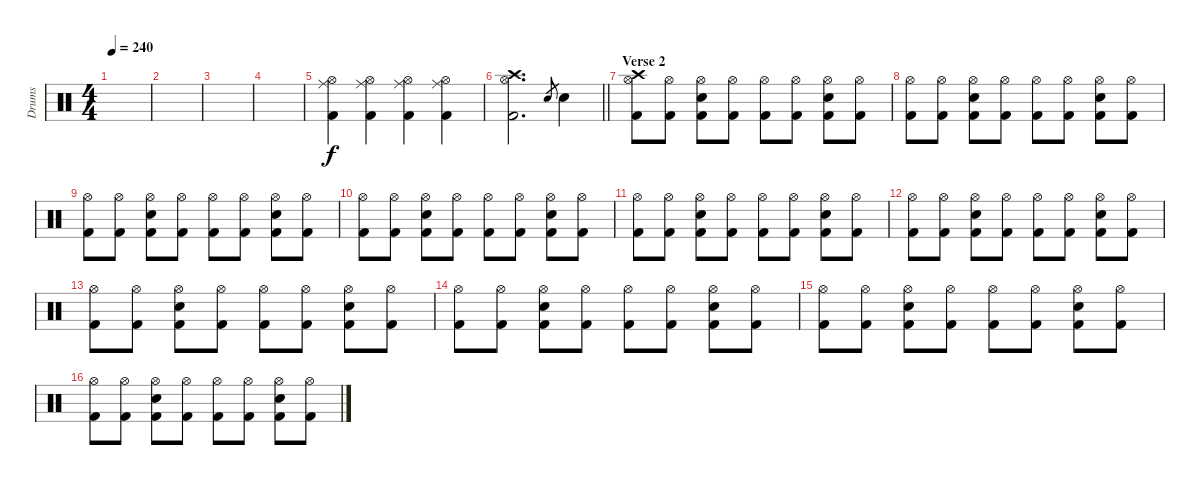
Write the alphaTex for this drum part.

\track ("Drums" "Drums") {instrument percussion}
\staff {score}
\articulation defaults
\ts (4 4)
\tempo 240
\clef neutral
\ks c
|
|
|
|
("Ride (middle)" "Hi-Hat (open)" "Kick (hit) 2").4 ("Ride (middle)" "Hi-Hat (open)" "Kick (hit) 2").4 ("Ride (middle)" "Hi-Hat (open)" "Kick (hit) 2").4 ("Ride (middle)" "Hi-Hat (open)" "Kick (hit) 2").4 |
\barLineRight lightlight
("Crash high (hit)" "Hi-Hat (open)" "Kick (hit) 2").2{d} "Snare (hit) 2".8{gr} "Snare (hit) 2".4 |
\section ("" "Verse 2")
("Kick (hit) 2" "Hi-Hat (open)" "Crash high (hit)").8 ("Kick (hit) 2" "Hi-Hat (open)").8 ("Kick (hit) 2" "Snare (hit) 2" "Hi-Hat (open)").8 ("Kick (hit) 2" "Hi-Hat (open)").8 ("Kick (hit) 2" "Hi-Hat (open)").8 ("Kick (hit) 2" "Hi-Hat (open)").8 ("Kick (hit) 2" "Snare (hit) 2" "Hi-Hat (open)").8 ("Kick (hit) 2" "Hi-Hat (open)").8 |
("Kick (hit) 2" "Hi-Hat (open)").8 ("Kick (hit) 2" "Hi-Hat (open)").8 ("Kick (hit) 2" "Snare (hit) 2" "Hi-Hat (open)").8 ("Kick (hit) 2" "Hi-Hat (open)").8 ("Kick (hit) 2" "Hi-Hat (open)").8 ("Kick (hit) 2" "Hi-Hat (open)").8 ("Kick (hit) 2" "Snare (hit) 2" "Hi-Hat (open)").8 ("Kick (hit) 2" "Hi-Hat (open)").8 |
("Kick (hit) 2" "Hi-Hat (open)").8 ("Kick (hit) 2" "Hi-Hat (open)").8 ("Kick (hit) 2" "Snare (hit) 2" "Hi-Hat (open)").8 ("Kick (hit) 2" "Hi-Hat (open)").8 ("Kick (hit) 2" "Hi-Hat (open)").8 ("Kick (hit) 2" "Hi-Hat (open)").8 ("Kick (hit) 2" "Snare (hit) 2" "Hi-Hat (open)").8 ("Kick (hit) 2" "Hi-Hat (open)").8 |
("Kick (hit) 2" "Hi-Hat (open)").8 ("Kick (hit) 2" "Hi-Hat (open)").8 ("Kick (hit) 2" "Snare (hit) 2" "Hi-Hat (open)").8 ("Kick (hit) 2" "Hi-Hat (open)").8 ("Kick (hit) 2" "Hi-Hat (open)").8 ("Kick (hit) 2" "Hi-Hat (open)").8 ("Kick (hit) 2" "Snare (hit) 2" "Hi-Hat (open)").8 ("Kick (hit) 2" "Hi-Hat (open)").8 |
("Kick (hit) 2" "Hi-Hat (open)").8 ("Kick (hit) 2" "Hi-Hat (open)").8 ("Kick (hit) 2" "Snare (hit) 2" "Hi-Hat (open)").8 ("Kick (hit) 2" "Hi-Hat (open)").8 ("Kick (hit) 2" "Hi-Hat (open)").8 ("Kick (hit) 2" "Hi-Hat (open)").8 ("Kick (hit) 2" "Snare (hit) 2" "Hi-Hat (open)").8 ("Kick (hit) 2" "Hi-Hat (open)").8 |
("Kick (hit) 2" "Hi-Hat (open)").8 ("Kick (hit) 2" "Hi-Hat (open)").8 ("Kick (hit) 2" "Snare (hit) 2" "Hi-Hat (open)").8 ("Kick (hit) 2" "Hi-Hat (open)").8 ("Kick (hit) 2" "Hi-Hat (open)").8 ("Kick (hit) 2" "Hi-Hat (open)").8 ("Kick (hit) 2" "Snare (hit) 2" "Hi-Hat (open)").8 ("Kick (hit) 2" "Hi-Hat (open)").8 |
("Kick (hit) 2" "Hi-Hat (open)").8 ("Kick (hit) 2" "Hi-Hat (open)").8 ("Kick (hit) 2" "Snare (hit) 2" "Hi-Hat (open)").8 ("Kick (hit) 2" "Hi-Hat (open)").8 ("Kick (hit) 2" "Hi-Hat (open)").8 ("Kick (hit) 2" "Hi-Hat (open)").8 ("Kick (hit) 2" "Snare (hit) 2" "Hi-Hat (open)").8 ("Kick (hit) 2" "Hi-Hat (open)").8 |
("Kick (hit) 2" "Hi-Hat (open)").8 ("Kick (hit) 2" "Hi-Hat (open)").8 ("Kick (hit) 2" "Snare (hit) 2" "Hi-Hat (open)").8 ("Kick (hit) 2" "Hi-Hat (open)").8 ("Kick (hit) 2" "Hi-Hat (open)").8 ("Kick (hit) 2" "Hi-Hat (open)").8 ("Kick (hit) 2" "Snare (hit) 2" "Hi-Hat (open)").8 ("Kick (hit) 2" "Hi-Hat (open)").8 |
("Kick (hit) 2" "Hi-Hat (open)").8 ("Kick (hit) 2" "Hi-Hat (open)").8 ("Kick (hit) 2" "Snare (hit) 2" "Hi-Hat (open)").8 ("Kick (hit) 2" "Hi-Hat (open)").8 ("Kick (hit) 2" "Hi-Hat (open)").8 ("Kick (hit) 2" "Hi-Hat (open)").8 ("Kick (hit) 2" "Snare (hit) 2" "Hi-Hat (open)").8 ("Kick (hit) 2" "Hi-Hat (open)").8 |
("Kick (hit) 2" "Hi-Hat (open)").8 ("Kick (hit) 2" "Hi-Hat (open)").8 ("Kick (hit) 2" "Snare (hit) 2" "Hi-Hat (open)").8 ("Kick (hit) 2" "Hi-Hat (open)").8 ("Kick (hit) 2" "Hi-Hat (open)").8 ("Kick (hit) 2" "Hi-Hat (open)").8 ("Kick (hit) 2" "Snare (hit) 2" "Hi-Hat (open)").8 ("Kick (hit) 2" "Hi-Hat (open)").8
